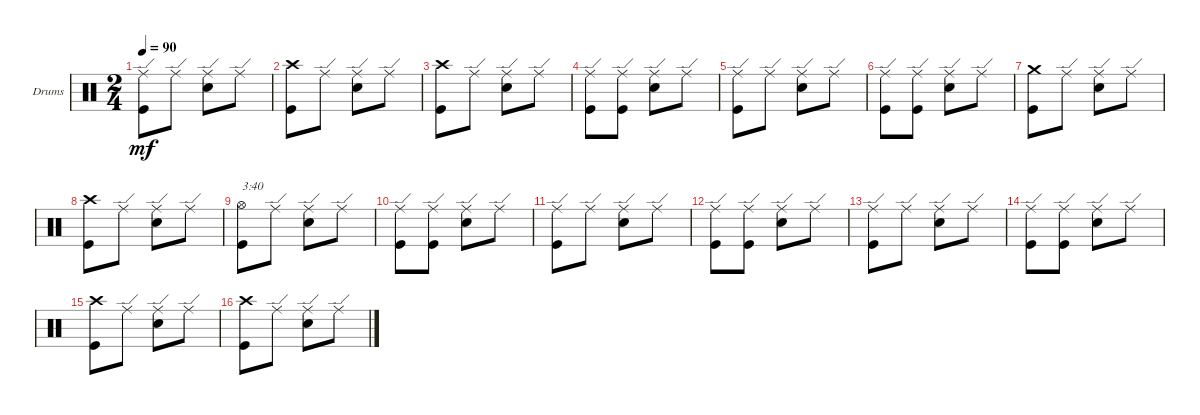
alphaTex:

\bracketExtendMode groupsimilarinstruments
\firstSystemTrackNameOrientation horizontal
\otherSystemsTrackNameOrientation horizontal
\track ("Drumkit" "Drums") {instrument percussion}
\staff {score}
\articulation defaults
\ts (2 4)
\tempo 90
\clef neutral
\scale
0.333333
\ks c
("Kick (hit)" "Ride (edge)").8{dy mf} "Ride (edge)".8 ("Ride (edge)" "Snare (hit) 2").8 "Ride (edge)".8 |
\scale
0.333333 ("Kick (hit)" "Crash high (hit)").8 "Ride (edge)".8 ("Ride (edge)" "Snare (hit) 2").8 "Ride (edge)".8 |
\scale
0.333333 ("Kick (hit)" "Crash high (hit)").8 "Ride (edge)".8 ("Ride (edge)" "Snare (hit) 2").8 "Ride (edge)".8 |
\scale
0.333333 ("Ride (edge)" "Kick (hit)").8 ("Ride (edge)" "Kick (hit)").8 ("Ride (edge)" "Snare (hit) 2").8 "Ride (edge)".8 |
\scale
0.333333 ("Ride (edge)" "Kick (hit)").8 "Ride (edge)".8 ("Ride (edge)" "Snare (hit) 2").8 "Ride (edge)".8 |
\scale
0.333333 ("Ride (edge)" "Kick (hit)").8 ("Ride (edge)" "Kick (hit)").8 ("Ride (edge)" "Snare (hit) 2").8 "Ride (edge)".8 |
\scale
0.333333 ("Crash medium (hit)" "Kick (hit)").8 "Ride (edge)".8 ("Ride (edge)" "Snare (hit) 2").8 "Ride (edge)".8 |
\scale
0.333333 ("Kick (hit)" "Crash high (hit)").8 "Ride (edge)".8 ("Ride (edge)" "Snare (hit) 2").8 "Ride (edge)".8 |
\scale
0.333333 ("Kick (hit)" "Hi-Hat (open)").8{txt "3:40"} "Ride (edge)".8 ("Ride (edge)" "Snare (hit) 2").8 "Ride (edge)".8 |
\scale
0.333333 ("Ride (edge)" "Kick (hit)").8 ("Ride (edge)" "Kick (hit)").8 ("Ride (edge)" "Snare (hit) 2").8 "Ride (edge)".8 |
\scale
0.333333 ("Ride (edge)" "Kick (hit)").8 "Ride (edge)".8 ("Ride (edge)" "Snare (hit) 2").8 "Ride (edge)".8 |
\scale
0.333333 ("Ride (edge)" "Kick (hit)").8 ("Ride (edge)" "Kick (hit)").8 ("Ride (edge)" "Snare (hit) 2").8 "Ride (edge)".8 |
\scale
0.333333 ("Ride (edge)" "Kick (hit)").8 "Ride (edge)".8 ("Ride (edge)" "Snare (hit) 2").8 "Ride (edge)".8 |
\scale
0.333333 ("Ride (edge)" "Kick (hit)").8 ("Ride (edge)" "Kick (hit)").8 ("Ride (edge)" "Snare (hit) 2").8 "Ride (edge)".8 |
\scale
0.333333 ("Kick (hit)" "Crash high (hit)").8 "Ride (edge)".8 ("Ride (edge)" "Snare (hit) 2").8 "Ride (edge)".8 |
\scale
0.333333 ("Kick (hit)" "Crash high (hit)").8 "Ride (edge)".8 ("Ride (edge)" "Snare (hit) 2").8 "Ride (edge)".8
